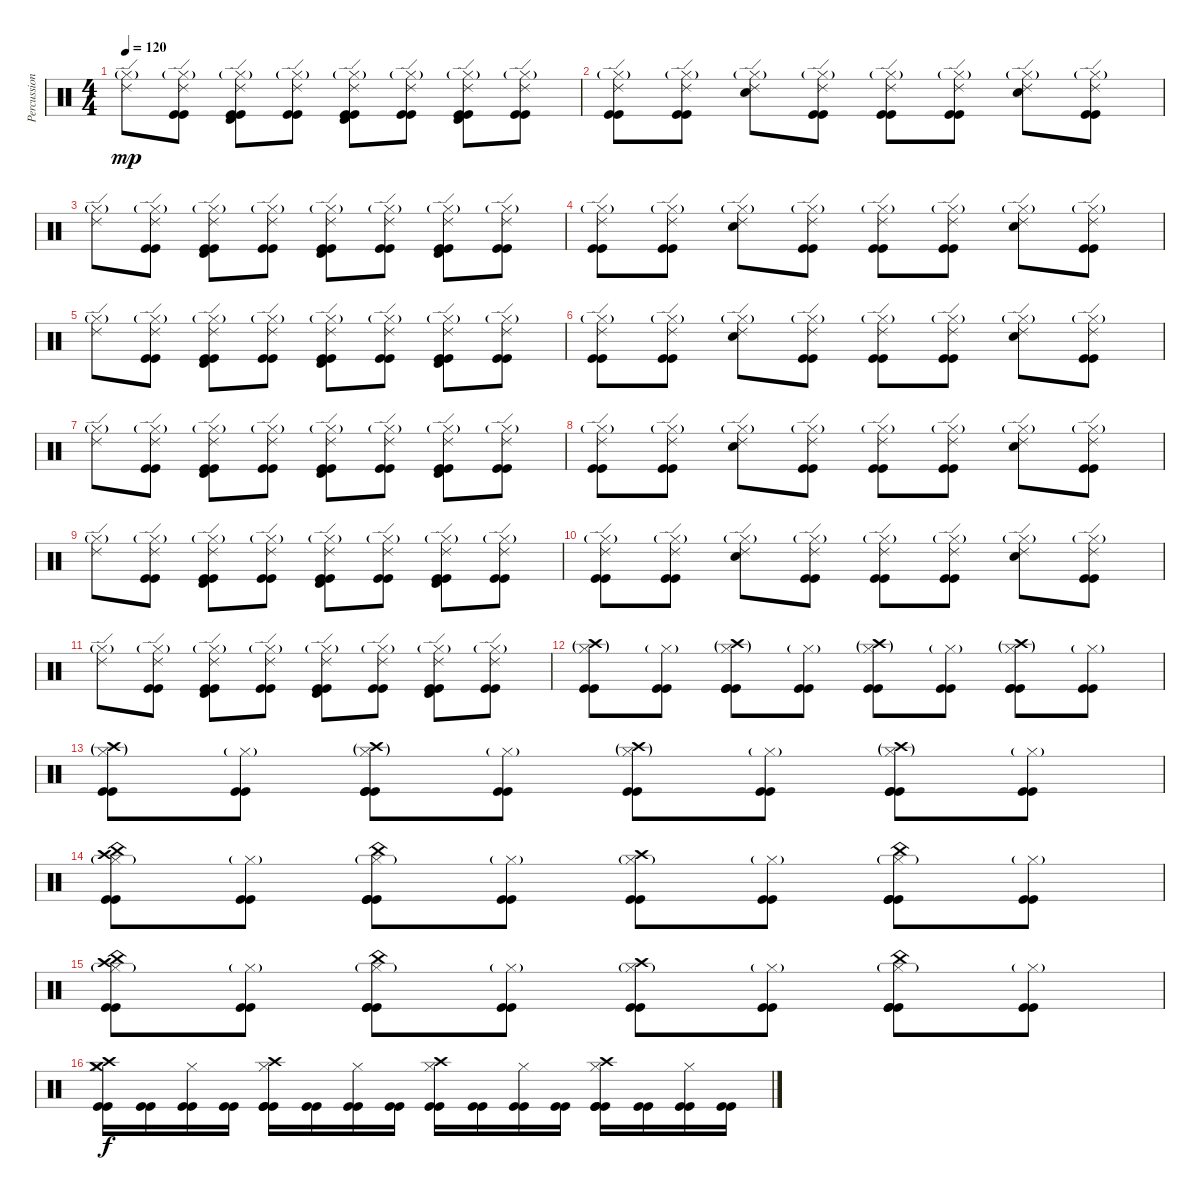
\track ("Percussion" "Percussion") {instrument percussion}
\staff {score}
\articulation defaults
\ts (4 4)
\tempo 120
\clef neutral
\ks c
("Hi-Hat (closed)"{g} "Ride (edge) 2").8{dy mp} ("Hi-Hat (closed)"{g} "Ride (edge) 2" "Kick (hit)" "Kick (hit)").8 ("Hi-Hat (closed)"{g} "Ride (edge) 2" "Timbale high (hit)" "Kick (hit)" "Kick (hit)").8 ("Hi-Hat (closed)"{g} "Ride (edge) 2" "Kick (hit)" "Kick (hit)").8 ("Hi-Hat (closed)"{g} "Ride (edge) 2" "Timbale high (hit)" "Kick (hit)" "Kick (hit)").8 ("Hi-Hat (closed)"{g} "Ride (edge) 2" "Kick (hit)" "Kick (hit)").8 ("Hi-Hat (closed)"{g} "Ride (edge) 2" "Timbale high (hit)" "Kick (hit)" "Kick (hit)").8 ("Hi-Hat (closed)"{g} "Ride (edge) 2" "Kick (hit)" "Kick (hit)").8 |
("Hi-Hat (closed)"{g} "Ride (edge) 2" "Kick (hit)" "Kick (hit)").8 ("Hi-Hat (closed)"{g} "Ride (edge) 2" "Kick (hit)" "Kick (hit)").8 ("Hi-Hat (closed)"{g} "Ride (edge) 2" "Snare (hit) 2").8 ("Hi-Hat (closed)"{g} "Ride (edge) 2" "Kick (hit)" "Kick (hit)").8 ("Hi-Hat (closed)"{g} "Ride (edge) 2" "Kick (hit)" "Kick (hit)").8 ("Hi-Hat (closed)"{g} "Ride (edge) 2" "Kick (hit)" "Kick (hit)").8 ("Hi-Hat (closed)"{g} "Ride (edge) 2" "Snare (hit) 2").8 ("Hi-Hat (closed)"{g} "Ride (edge) 2" "Kick (hit)" "Kick (hit)").8 |
("Hi-Hat (closed)"{g} "Ride (edge) 2").8 ("Hi-Hat (closed)"{g} "Ride (edge) 2" "Kick (hit)" "Kick (hit)").8 ("Hi-Hat (closed)"{g} "Ride (edge) 2" "Timbale high (hit)" "Kick (hit)" "Kick (hit)").8 ("Hi-Hat (closed)"{g} "Ride (edge) 2" "Kick (hit)" "Kick (hit)").8 ("Hi-Hat (closed)"{g} "Ride (edge) 2" "Timbale high (hit)" "Kick (hit)" "Kick (hit)").8 ("Hi-Hat (closed)"{g} "Ride (edge) 2" "Kick (hit)" "Kick (hit)").8 ("Hi-Hat (closed)"{g} "Ride (edge) 2" "Timbale high (hit)" "Kick (hit)" "Kick (hit)").8 ("Hi-Hat (closed)"{g} "Ride (edge) 2" "Kick (hit)" "Kick (hit)").8 |
("Hi-Hat (closed)"{g} "Ride (edge) 2" "Kick (hit)" "Kick (hit)").8 ("Hi-Hat (closed)"{g} "Ride (edge) 2" "Kick (hit)" "Kick (hit)").8 ("Hi-Hat (closed)"{g} "Ride (edge) 2" "Snare (hit) 2").8 ("Hi-Hat (closed)"{g} "Ride (edge) 2" "Kick (hit)" "Kick (hit)").8 ("Hi-Hat (closed)"{g} "Ride (edge) 2" "Kick (hit)" "Kick (hit)").8 ("Hi-Hat (closed)"{g} "Ride (edge) 2" "Kick (hit)" "Kick (hit)").8 ("Hi-Hat (closed)"{g} "Ride (edge) 2" "Snare (hit) 2").8 ("Hi-Hat (closed)"{g} "Ride (edge) 2" "Kick (hit)" "Kick (hit)").8 |
("Hi-Hat (closed)"{g} "Ride (edge) 2").8 ("Hi-Hat (closed)"{g} "Ride (edge) 2" "Kick (hit)" "Kick (hit)").8 ("Hi-Hat (closed)"{g} "Ride (edge) 2" "Timbale high (hit)" "Kick (hit)" "Kick (hit)").8 ("Hi-Hat (closed)"{g} "Ride (edge) 2" "Kick (hit)" "Kick (hit)").8 ("Hi-Hat (closed)"{g} "Ride (edge) 2" "Timbale high (hit)" "Kick (hit)" "Kick (hit)").8 ("Hi-Hat (closed)"{g} "Ride (edge) 2" "Kick (hit)" "Kick (hit)").8 ("Hi-Hat (closed)"{g} "Ride (edge) 2" "Timbale high (hit)" "Kick (hit)" "Kick (hit)").8 ("Hi-Hat (closed)"{g} "Ride (edge) 2" "Kick (hit)" "Kick (hit)").8 |
("Hi-Hat (closed)"{g} "Ride (edge) 2" "Kick (hit)" "Kick (hit)").8 ("Hi-Hat (closed)"{g} "Ride (edge) 2" "Kick (hit)" "Kick (hit)").8 ("Hi-Hat (closed)"{g} "Ride (edge) 2" "Snare (hit) 2").8 ("Hi-Hat (closed)"{g} "Ride (edge) 2" "Kick (hit)" "Kick (hit)").8 ("Hi-Hat (closed)"{g} "Ride (edge) 2" "Kick (hit)" "Kick (hit)").8 ("Hi-Hat (closed)"{g} "Ride (edge) 2" "Kick (hit)" "Kick (hit)").8 ("Hi-Hat (closed)"{g} "Ride (edge) 2" "Snare (hit) 2").8 ("Hi-Hat (closed)"{g} "Ride (edge) 2" "Kick (hit)" "Kick (hit)").8 |
("Hi-Hat (closed)"{g} "Ride (edge) 2").8 ("Hi-Hat (closed)"{g} "Ride (edge) 2" "Kick (hit)" "Kick (hit)").8 ("Hi-Hat (closed)"{g} "Ride (edge) 2" "Timbale high (hit)" "Kick (hit)" "Kick (hit)").8 ("Hi-Hat (closed)"{g} "Ride (edge) 2" "Kick (hit)" "Kick (hit)").8 ("Hi-Hat (closed)"{g} "Ride (edge) 2" "Timbale high (hit)" "Kick (hit)" "Kick (hit)").8 ("Hi-Hat (closed)"{g} "Ride (edge) 2" "Kick (hit)" "Kick (hit)").8 ("Hi-Hat (closed)"{g} "Ride (edge) 2" "Timbale high (hit)" "Kick (hit)" "Kick (hit)").8 ("Hi-Hat (closed)"{g} "Ride (edge) 2" "Kick (hit)" "Kick (hit)").8 |
("Hi-Hat (closed)"{g} "Ride (edge) 2" "Kick (hit)" "Kick (hit)").8{volume 15} ("Hi-Hat (closed)"{g} "Ride (edge) 2" "Kick (hit)" "Kick (hit)").8 ("Hi-Hat (closed)"{g} "Ride (edge) 2" "Snare (hit) 2").8 ("Hi-Hat (closed)"{g} "Ride (edge) 2" "Kick (hit)" "Kick (hit)").8 ("Hi-Hat (closed)"{g} "Ride (edge) 2" "Kick (hit)" "Kick (hit)").8 ("Hi-Hat (closed)"{g} "Ride (edge) 2" "Kick (hit)" "Kick (hit)").8 ("Hi-Hat (closed)"{g} "Ride (edge) 2" "Snare (hit) 2").8 ("Hi-Hat (closed)"{g} "Ride (edge) 2" "Kick (hit)" "Kick (hit)").8 |
("Hi-Hat (closed)"{g} "Ride (edge) 2").8 ("Hi-Hat (closed)"{g} "Ride (edge) 2" "Kick (hit)" "Kick (hit)").8 ("Hi-Hat (closed)"{g} "Ride (edge) 2" "Timbale high (hit)" "Kick (hit)" "Kick (hit)").8 ("Hi-Hat (closed)"{g} "Ride (edge) 2" "Kick (hit)" "Kick (hit)").8 ("Hi-Hat (closed)"{g} "Ride (edge) 2" "Timbale high (hit)" "Kick (hit)" "Kick (hit)").8 ("Hi-Hat (closed)"{g} "Ride (edge) 2" "Kick (hit)" "Kick (hit)").8 ("Hi-Hat (closed)"{g} "Ride (edge) 2" "Timbale high (hit)" "Kick (hit)" "Kick (hit)").8 ("Hi-Hat (closed)"{g} "Ride (edge) 2" "Kick (hit)" "Kick (hit)").8 |
("Hi-Hat (closed)"{g} "Ride (edge) 2" "Kick (hit)" "Kick (hit)").8{volume 16} ("Hi-Hat (closed)"{g} "Ride (edge) 2" "Kick (hit)" "Kick (hit)").8 ("Hi-Hat (closed)"{g} "Ride (edge) 2" "Snare (hit) 2").8 ("Hi-Hat (closed)"{g} "Ride (edge) 2" "Kick (hit)" "Kick (hit)").8 ("Hi-Hat (closed)"{g} "Ride (edge) 2" "Kick (hit)" "Kick (hit)").8 ("Hi-Hat (closed)"{g} "Ride (edge) 2" "Kick (hit)" "Kick (hit)").8 ("Hi-Hat (closed)"{g} "Ride (edge) 2" "Snare (hit) 2").8 ("Hi-Hat (closed)"{g} "Ride (edge) 2" "Kick (hit)" "Kick (hit)").8 |
("Hi-Hat (closed)"{g} "Ride (edge) 2").8 ("Hi-Hat (closed)"{g} "Ride (edge) 2" "Kick (hit)" "Kick (hit)").8 ("Hi-Hat (closed)"{g} "Ride (edge) 2" "Timbale high (hit)" "Kick (hit)" "Kick (hit)").8 ("Hi-Hat (closed)"{g} "Ride (edge) 2" "Kick (hit)" "Kick (hit)").8 ("Hi-Hat (closed)"{g} "Ride (edge) 2" "Timbale high (hit)" "Kick (hit)" "Kick (hit)").8 ("Hi-Hat (closed)"{g} "Ride (edge) 2" "Kick (hit)" "Kick (hit)").8 ("Hi-Hat (closed)"{g} "Ride (edge) 2" "Timbale high (hit)" "Kick (hit)" "Kick (hit)").8 ("Hi-Hat (closed)"{g} "Ride (edge) 2" "Kick (hit)" "Kick (hit)").8 |
("Hi-Hat (closed)"{g} "Crash high (hit)"{g} "Kick (hit)" "Kick (hit)").8 ("Hi-Hat (closed)"{g} "Kick (hit)" "Kick (hit)").8 ("Hi-Hat (closed)"{g} "Crash high (hit)"{g} "Kick (hit)" "Kick (hit)" "Kick (hit)").8 ("Hi-Hat (closed)"{g} "Kick (hit)" "Kick (hit)").8 ("Hi-Hat (closed)"{g} "Crash high (hit)"{g} "Kick (hit)" "Kick (hit)").8 ("Hi-Hat (closed)"{g} "Kick (hit)" "Kick (hit)").8 ("Hi-Hat (closed)"{g} "Crash high (hit)"{g} "Kick (hit)" "Kick (hit)" "Kick (hit)").8 ("Hi-Hat (closed)"{g} "Kick (hit)" "Kick (hit)").8 |
("Hi-Hat (closed)"{g} "Crash high (hit)"{g} "Kick (hit)" "Kick (hit)").8 ("Hi-Hat (closed)"{g} "Kick (hit)" "Kick (hit)").8 ("Hi-Hat (closed)"{g} "Crash high (hit)"{g} "Kick (hit)" "Kick (hit)" "Kick (hit)").8 ("Hi-Hat (closed)"{g} "Kick (hit)" "Kick (hit)").8 ("Hi-Hat (closed)"{g} "Crash high (hit)"{g} "Kick (hit)" "Kick (hit)").8 ("Hi-Hat (closed)"{g} "Kick (hit)" "Kick (hit)").8 ("Hi-Hat (closed)"{g} "Crash high (hit)"{g} "Kick (hit)" "Kick (hit)" "Kick (hit)").8 ("Hi-Hat (closed)"{g} "Kick (hit)" "Kick (hit)").8 |
("Hi-Hat (closed)"{g} "Crash high (hit)" "China (hit)" "Kick (hit)" "Kick (hit)").8 ("Hi-Hat (closed)"{g} "Kick (hit)" "Kick (hit)").8 ("Hi-Hat (closed)"{g} "China (hit)" "Kick (hit)" "Kick (hit)" "Kick (hit)").8 ("Hi-Hat (closed)"{g} "Kick (hit)" "Kick (hit)").8 ("Hi-Hat (closed)"{g} "Crash high (hit)" "Kick (hit)" "Kick (hit)").8 ("Hi-Hat (closed)"{g} "Kick (hit)" "Kick (hit)").8 ("Hi-Hat (closed)"{g} "China (hit)" "Kick (hit)" "Kick (hit)" "Kick (hit)").8 ("Hi-Hat (closed)"{g} "Kick (hit)" "Kick (hit)").8 |
("Hi-Hat (closed)"{g} "Crash high (hit)" "China (hit)" "Kick (hit)" "Kick (hit)").8 ("Hi-Hat (closed)"{g} "Kick (hit)" "Kick (hit)").8 ("Hi-Hat (closed)"{g} "China (hit)" "Kick (hit)" "Kick (hit)" "Kick (hit)").8 ("Hi-Hat (closed)"{g} "Kick (hit)" "Kick (hit)").8 ("Hi-Hat (closed)"{g} "Crash high (hit)" "Kick (hit)" "Kick (hit)").8 ("Hi-Hat (closed)"{g} "Kick (hit)" "Kick (hit)").8 ("Hi-Hat (closed)"{g} "China (hit)" "Kick (hit)" "Kick (hit)" "Kick (hit)").8 ("Hi-Hat (closed)"{g} "Kick (hit)" "Kick (hit)").8 |
("Hi-Hat (closed)" "Crash high (hit)" "Crash medium (hit)" "Kick (hit)" "Kick (hit)").16{dy f} ("Kick (hit)" "Kick (hit)").16 ("Hi-Hat (closed)" "Kick (hit)" "Kick (hit)").16 ("Kick (hit)" "Kick (hit)").16 ("Hi-Hat (closed)" "Crash high (hit)" "Kick (hit)" "Kick (hit)" "Kick (hit)").16 ("Kick (hit)" "Kick (hit)").16 ("Hi-Hat (closed)" "Kick (hit)" "Kick (hit)").16 ("Kick (hit)" "Kick (hit)").16 ("Hi-Hat (closed)" "Crash high (hit)" "Kick (hit)" "Kick (hit)").16 ("Kick (hit)" "Kick (hit)").16 ("Hi-Hat (closed)" "Kick (hit)" "Kick (hit)").16 ("Kick (hit)" "Kick (hit)").16 ("Hi-Hat (closed)" "Crash high (hit)" "Kick (hit)" "Kick (hit)" "Kick (hit)").16 ("Kick (hit)" "Kick (hit)").16 ("Hi-Hat (closed)" "Kick (hit)" "Kick (hit)").16 ("Kick (hit)" "Kick (hit)").16
